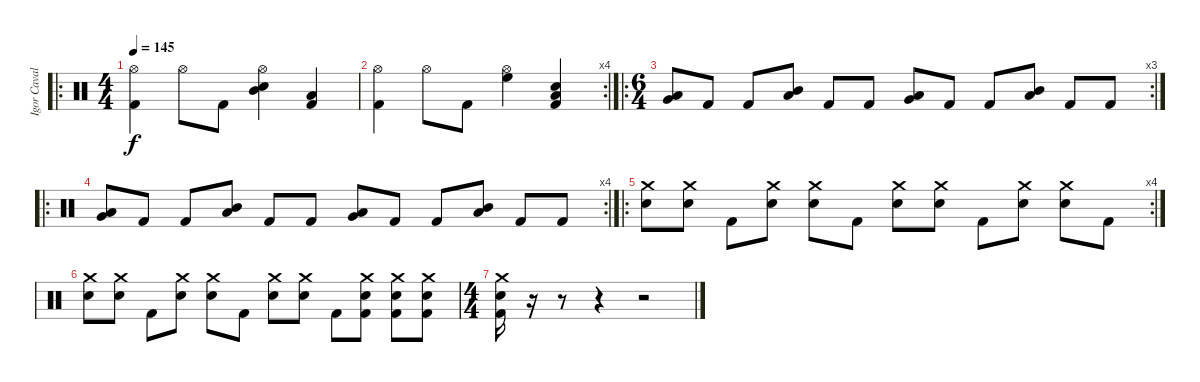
\track ("Igor Cavalera" "Igor Caval") {instrument percussion}
\staff {score}
\articulation defaults
\ro
\ts (4 4)
\tempo 145
\clef neutral
\ks c
("Hi-Hat (open)" "Kick (hit) 2").4{dy f} "Hi-Hat (open)".8 "Kick (hit) 2".8 ("Hi-Hat (open)" "Mid Tom (hit)" "Electric Snare (hit)").4 ("Low Tom (hit)" "Kick (hit) 2").4 |
\rc 4
("Hi-Hat (open)" "Kick (hit) 2").4 "Hi-Hat (open)".8 "Kick (hit) 2".8 ("Hi-Hat (open)" "High Floor Tom (hit)").4 ("Low Tom (hit)" "Electric Snare (hit)" "Kick (hit) 2").4 |
\ro
\rc 3
\ts (6 4)
("Very Low Tom (hit)" "Low Tom (hit)").8 "Kick (hit) 2".8 "Kick (hit) 2".8 ("Low Tom (hit)" "Mid Tom (hit)").8 "Kick (hit) 2".8 "Kick (hit) 2".8 ("Very Low Tom (hit)" "Low Tom (hit)").8 "Kick (hit) 2".8 "Kick (hit) 2".8 ("Low Tom (hit)" "Mid Tom (hit)").8 "Kick (hit) 2".8 "Kick (hit) 2".8 |
\ro
\rc 4
("Very Low Tom (hit)" "Low Tom (hit)").8 "Kick (hit) 2".8 "Kick (hit) 2".8 ("Low Tom (hit)" "Mid Tom (hit)").8 "Kick (hit) 2".8 "Kick (hit) 2".8 ("Very Low Tom (hit)" "Low Tom (hit)").8 "Kick (hit) 2".8 "Kick (hit) 2".8 ("Low Tom (hit)" "Mid Tom (hit)").8 "Kick (hit) 2".8 "Kick (hit) 2".8 |
\ro
\rc 4
("Crash medium (hit)" "Electric Snare (hit)").8 ("Crash medium (hit)" "Electric Snare (hit)").8 "Kick (hit) 2".8 ("Crash medium (hit)" "Electric Snare (hit)").8 ("Crash medium (hit)" "Electric Snare (hit)").8 "Kick (hit) 2".8 ("Crash medium (hit)" "Electric Snare (hit)").8 ("Crash medium (hit)" "Electric Snare (hit)").8 "Kick (hit) 2".8 ("Crash medium (hit)" "Electric Snare (hit)").8 ("Crash medium (hit)" "Electric Snare (hit)").8 "Kick (hit) 2".8 |
("Crash medium (hit)" "Electric Snare (hit)").8 ("Crash medium (hit)" "Electric Snare (hit)").8 "Kick (hit) 2".8 ("Crash medium (hit)" "Electric Snare (hit)").8 ("Crash medium (hit)" "Electric Snare (hit)").8 "Kick (hit) 2".8 ("Crash medium (hit)" "Electric Snare (hit)").8 ("Crash medium (hit)" "Electric Snare (hit)").8 "Kick (hit) 2".8 ("Crash medium (hit)" "Electric Snare (hit)" "Kick (hit) 2").8 ("Crash medium (hit)" "Electric Snare (hit)" "Kick (hit) 2").8 ("Crash medium (hit)" "Electric Snare (hit)" "Kick (hit) 2").8 |
\ts (4 4)
("Crash medium (hit)" "Electric Snare (hit)" "Kick (hit) 2").16 r.16 r.8 r.4 r.2
